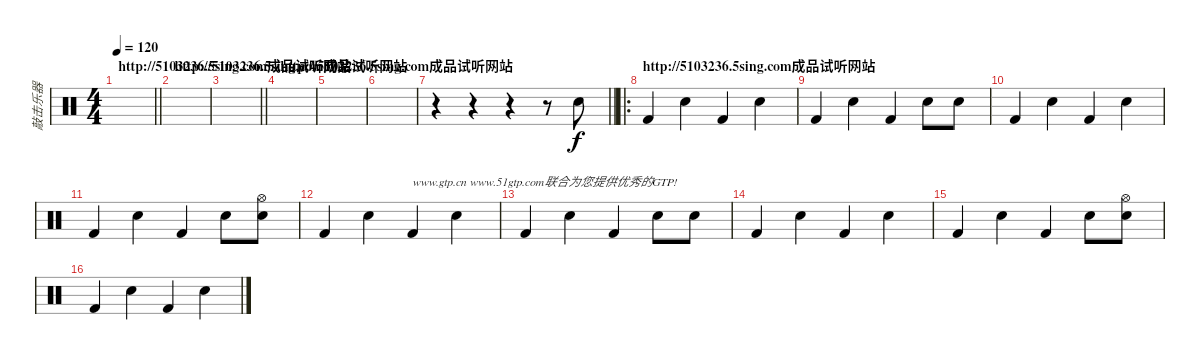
\track ("敲击乐器" "敲击乐器") {instrument percussion}
\staff {score}
\articulation defaults
\ts (4 4)
\section ("" "http://5103236.5sing.com成品试听网站")
\tempo 120
\clef neutral
\barLineRight lightlight
\ks c
|
\section ("" "http://5103236.5sing.com成品试听网站")
|
\barLineRight lightlight
|
\section ("" "http://5103236.5sing.com成品试听网站")
|
|
|
\barLineRight lightlight
r.4 r.4 r.4 r.8 "Snare (hit) 2".8 |
\ro
\section ("" "http://5103236.5sing.com成品试听网站")
"Kick (hit) 2".4 "Snare (hit) 2".4 "Kick (hit) 2".4 "Snare (hit) 2".4 |
"Kick (hit) 2".4 "Snare (hit) 2".4 "Kick (hit) 2".4 "Snare (hit) 2".8 "Electric Snare (hit)".8 |
"Kick (hit) 2".4 "Snare (hit) 2".4 "Kick (hit) 2".4 "Snare (hit) 2".4 |
"Kick (hit) 2".4 "Snare (hit) 2".4 "Kick (hit) 2".4 "Snare (hit) 2".8 ("Electric Snare (hit)" "Hi-Hat (open)").8 |
"Kick (hit) 2".4 "Snare (hit) 2".4 "Kick (hit) 2".4{txt "www.gtp.cn www.51gtp.com联合为您提供优秀的GTP!"} "Snare (hit) 2".4 |
"Kick (hit) 2".4 "Snare (hit) 2".4 "Kick (hit) 2".4 "Snare (hit) 2".8 "Electric Snare (hit)".8 |
"Kick (hit) 2".4 "Snare (hit) 2".4 "Kick (hit) 2".4 "Snare (hit) 2".4 |
"Kick (hit) 2".4 "Snare (hit) 2".4 "Kick (hit) 2".4 "Snare (hit) 2".8 ("Electric Snare (hit)" "Hi-Hat (open)").8 |
"Kick (hit) 2".4 "Snare (hit) 2".4 "Kick (hit) 2".4 "Snare (hit) 2".4
